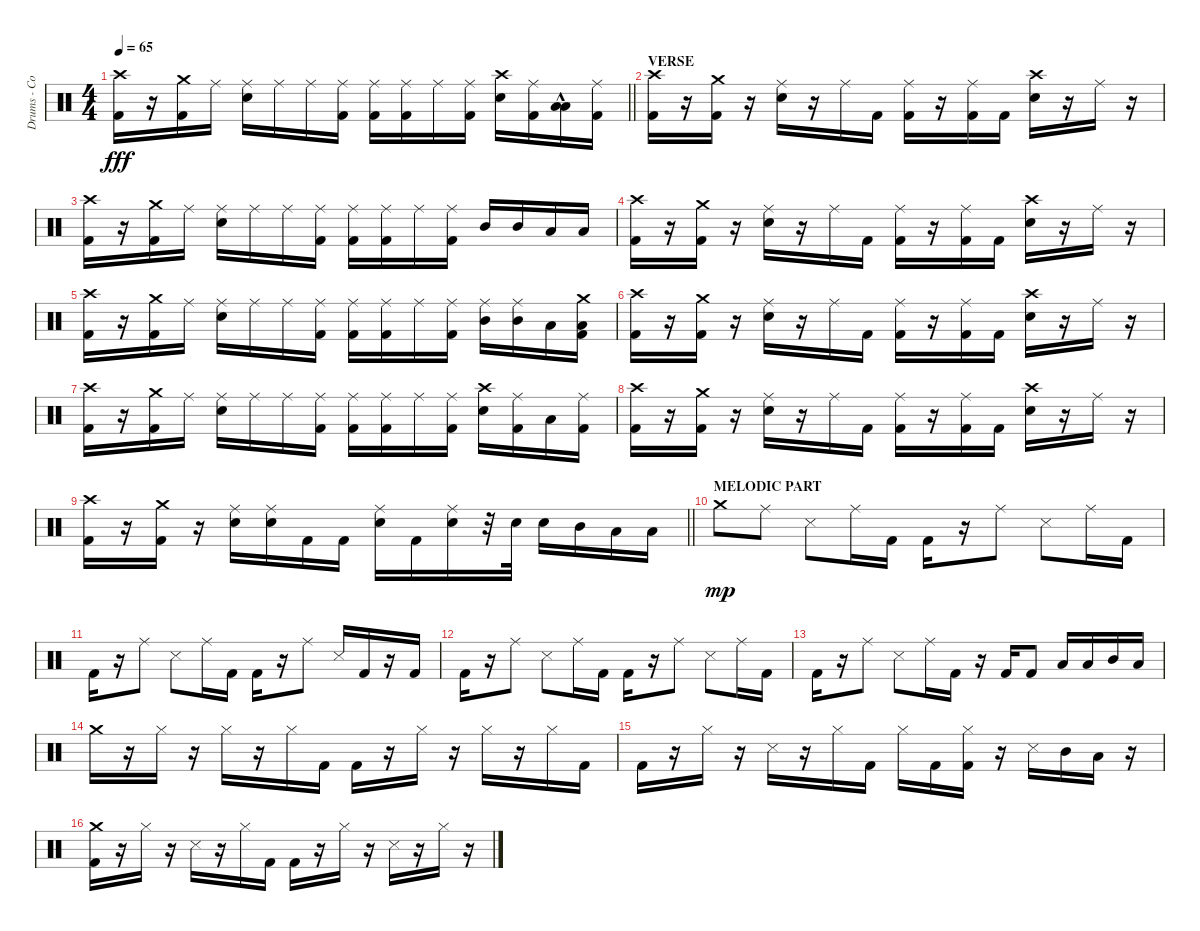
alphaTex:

\track ("Drums - Cozy Powell" "Drums - Co") {instrument percussion}
\staff {score}
\articulation defaults
\ts (4 4)
\tempo 65
\clef neutral
\barLineRight lightlight
\ks c
("Crash high (hit)" "Kick (hit) 2").16{dy fff} r.16 ("Crash medium (hit)" "Kick (hit) 2").16 "Ride (middle)".16 ("Ride (middle)" "Snare (hit) 2").16 "Ride (middle)".16 "Ride (middle)".16 ("Ride (middle)" "Kick (hit) 2").16 ("Ride (middle)" "Kick (hit) 2").16 ("Ride (middle)" "Kick (hit) 2").16 "Ride (middle)".16 ("Ride (middle)" "Kick (hit) 2").16 ("Crash high (hit)" "Snare (hit) 2").16 ("Ride (middle)" "Kick (hit) 2").16 ("Low Floor Tom (hit)"{hac} "Low Floor Tom (hit)"{hac}).16 ("Ride (middle)" "Kick (hit) 2").16 |
\section ("" "VERSE")
("Crash high (hit)" "Kick (hit) 2").16 r.16 ("Crash medium (hit)" "Kick (hit) 2").16 r.16 ("Ride (middle)" "Snare (hit) 2").16 r.16 "Ride (middle)".16 "Kick (hit) 2".16 ("Ride (middle)" "Kick (hit) 2").16 r.16 ("Ride (middle)" "Kick (hit) 2").16 "Kick (hit) 2".16 ("Crash high (hit)" "Snare (hit) 2").16 r.16 "Ride (middle)".16 r.16 |
("Crash high (hit)" "Kick (hit) 2").16 r.16 ("Crash medium (hit)" "Kick (hit) 2").16 "Ride (middle)".16 ("Ride (middle)" "Snare (hit) 2").16 "Ride (middle)".16 "Ride (middle)".16 ("Ride (middle)" "Kick (hit) 2").16 ("Ride (middle)" "Kick (hit) 2").16 ("Ride (middle)" "Kick (hit) 2").16 "Ride (middle)".16 ("Ride (middle)" "Kick (hit) 2").16 "Mid Tom (hit)".16 "Mid Tom (hit)".16 "Low Tom (hit)".16 "Low Floor Tom (hit)".16 |
("Crash high (hit)" "Kick (hit) 2").16 r.16 ("Crash medium (hit)" "Kick (hit) 2").16 r.16 ("Ride (middle)" "Snare (hit) 2").16 r.16 "Ride (middle)".16 "Kick (hit) 2".16 ("Ride (middle)" "Kick (hit) 2").16 r.16 ("Ride (middle)" "Kick (hit) 2").16 "Kick (hit) 2".16 ("Crash high (hit)" "Snare (hit) 2").16 r.16 "Ride (middle)".16 r.16 |
("Crash high (hit)" "Kick (hit) 2").16 r.16 ("Crash medium (hit)" "Kick (hit) 2").16 "Ride (middle)".16 ("Ride (middle)" "Snare (hit) 2").16 "Ride (middle)".16 "Ride (middle)".16 ("Ride (middle)" "Kick (hit) 2").16 ("Ride (middle)" "Kick (hit) 2").16 ("Ride (middle)" "Kick (hit) 2").16 "Ride (middle)".16 ("Ride (middle)" "Kick (hit) 2").16 ("Ride (middle)" "Mid Tom (hit)").16 ("Ride (middle)" "Mid Tom (hit)").16 "Low Tom (hit)".16 ("Crash medium (hit)" "Low Floor Tom (hit)" "Kick (hit) 2").16 |
("Crash high (hit)" "Kick (hit) 2").16 r.16 ("Crash medium (hit)" "Kick (hit) 2").16 r.16 ("Ride (middle)" "Snare (hit) 2").16 r.16 "Ride (middle)".16 "Kick (hit) 2".16 ("Ride (middle)" "Kick (hit) 2").16 r.16 ("Ride (middle)" "Kick (hit) 2").16 "Kick (hit) 2".16 ("Crash high (hit)" "Snare (hit) 2").16 r.16 "Ride (middle)".16 r.16 |
("Crash high (hit)" "Kick (hit) 2").16 r.16 ("Crash medium (hit)" "Kick (hit) 2").16 "Ride (middle)".16 ("Ride (middle)" "Snare (hit) 2").16 "Ride (middle)".16 "Ride (middle)".16 ("Ride (middle)" "Kick (hit) 2").16 ("Ride (middle)" "Kick (hit) 2").16 ("Ride (middle)" "Kick (hit) 2").16 "Ride (middle)".16 ("Ride (middle)" "Kick (hit) 2").16 ("Crash high (hit)" "Snare (hit) 2").16 ("Ride (middle)" "Kick (hit) 2").16 "Low Floor Tom (hit)".16 ("Ride (middle)" "Kick (hit) 2").16 |
("Crash high (hit)" "Kick (hit) 2").16 r.16 ("Crash medium (hit)" "Kick (hit) 2").16 r.16 ("Ride (middle)" "Snare (hit) 2").16 r.16 "Ride (middle)".16 "Kick (hit) 2".16 ("Ride (middle)" "Kick (hit) 2").16 r.16 ("Ride (middle)" "Kick (hit) 2").16 "Kick (hit) 2".16 ("Crash high (hit)" "Snare (hit) 2").16 r.16 "Ride (middle)".16 r.16 |
\barLineRight lightlight
("Crash high (hit)" "Kick (hit) 2").16 r.16 ("Crash medium (hit)" "Kick (hit) 2").16 r.16 ("Ride (middle)" "Snare (hit) 2").16 ("Ride (middle)" "Snare (hit) 2").16 "Kick (hit) 2".16 "Kick (hit) 2".16 ("Ride (middle)" "Snare (hit) 2").16 "Kick (hit) 2".16 ("Ride (middle)" "Snare (hit) 2").16 r.32 "Snare (hit) 2".32 "Snare (hit) 2".16 "Mid Tom (hit)".16 "Low Tom (hit)".16 "Low Floor Tom (hit)".16 |
\section ("" "MELODIC PART")
"Crash medium (hit)".8{dy mp} "Ride (middle)".8 "Snare (side stick) 3".8 "Ride (middle)".16 "Kick (hit) 2".16 "Kick (hit) 2".16 r.16 "Ride (middle)".8 "Snare (side stick) 3".8 "Ride (middle)".16 "Kick (hit) 2".16 |
"Kick (hit) 2".16 r.16 "Ride (middle)".8 "Snare (side stick) 3".8 "Ride (middle)".16 "Kick (hit) 2".16 "Kick (hit) 2".16 r.16 "Ride (middle)".8 "Snare (side stick) 3".16 "Kick (hit) 2".16 r.16 "Kick (hit) 2".16 |
"Kick (hit) 2".16 r.16 "Ride (middle)".8 "Snare (side stick) 3".8 "Ride (middle)".16 "Kick (hit) 2".16 "Kick (hit) 2".16 r.16 "Ride (middle)".8 "Snare (side stick) 3".8 "Ride (middle)".16 "Kick (hit) 2".16 |
"Kick (hit) 2".16 r.16 "Ride (middle)".8 "Snare (side stick) 3".8 "Ride (middle)".16 "Kick (hit) 2".16 r.16 "Kick (hit) 2".16 "Kick (hit) 2".8 "Low Tom (hit)".16 "Low Tom (hit)".16 "Mid Tom (hit)".16 "Low Floor Tom (hit)".16 |
"Crash medium (hit)".16 r.16 "Hi-Hat (closed)".16 r.16 "Hi-Hat (closed)".16 r.16 "Hi-Hat (closed)".16 "Kick (hit) 2".16 "Kick (hit) 2".16 r.16 "Hi-Hat (closed)".16 r.16 "Hi-Hat (closed)".16 r.16 "Hi-Hat (closed)".16 "Kick (hit) 2".16 |
"Kick (hit) 2".16 r.16 "Hi-Hat (closed)".16 r.16 "Snare (side stick) 3".16 r.16 "Hi-Hat (closed)".16 "Kick (hit) 2".16 "Hi-Hat (closed)".16 "Kick (hit) 2".16 ("Hi-Hat (closed)" "Kick (hit) 2").16 r.16 "Snare (side stick) 3".16 "Mid Tom (hit)".16 "Low Tom (hit)".16 r.16 |
("Crash medium (hit)" "Kick (hit) 2").16 r.16 "Hi-Hat (closed)".16 r.16 "Snare (side stick) 3".16 r.16 "Hi-Hat (closed)".16 "Kick (hit) 2".16 "Kick (hit) 2".16 r.16 "Hi-Hat (closed)".16 r.16 "Snare (side stick) 3".16 r.16 "Hi-Hat (closed)".16 r.16
